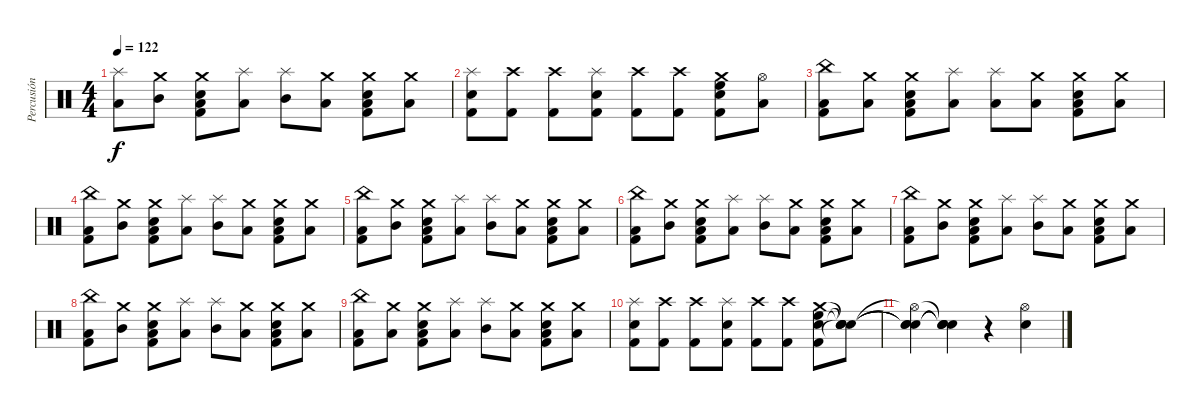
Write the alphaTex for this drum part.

\track ("Percusión" "Percusión") {instrument percussion}
\staff {score}
\articulation defaults
\ts (4 4)
\tempo 122
\clef neutral
\ks c
("Splash (hit)" "Low Floor Tom (hit)").8{dy f} ("Crash medium (hit)" "Mid Tom (hit)").8 ("Crash medium (hit)" "Low Floor Tom (hit)" "Electric Snare (hit)" "Kick (hit) 2").8 ("Splash (hit)" "Low Floor Tom (hit)").8 ("Splash (hit)" "Mid Tom (hit)").8 ("Crash medium (hit)" "Low Floor Tom (hit)").8 ("Crash medium (hit)" "Low Floor Tom (hit)" "Electric Snare (hit)" "Kick (hit) 2").8 ("Crash medium (hit)" "Low Floor Tom (hit)").8 |
("Electric Snare (hit)" "Kick (hit) 2" "Splash (hit)").8 ("Kick (hit) 2" "Crash high (hit)").8 ("Kick (hit) 2" "Crash high (hit)").8 ("Electric Snare (hit)" "Kick (hit) 2" "Splash (hit)").8 ("Kick (hit) 2" "Crash high (hit)").8 ("Kick (hit) 2" "Crash high (hit)").8 ("Electric Snare (hit)" "Kick (hit) 2" "Crash medium (hit)" "High Floor Tom (hit)").8 ("Hi-Hat (open)" "Low Floor Tom (hit)").8 |
("China (hit)" "Low Floor Tom (hit)" "Kick (hit) 2").8 ("Crash medium (hit)" "Low Floor Tom (hit)").8 ("Crash medium (hit)" "Low Floor Tom (hit)" "Electric Snare (hit)" "Kick (hit) 2").8 ("Splash (hit)" "Low Floor Tom (hit)").8 ("Splash (hit)" "Low Floor Tom (hit)").8 ("Crash medium (hit)" "Low Floor Tom (hit)").8 ("Crash medium (hit)" "Low Floor Tom (hit)" "Electric Snare (hit)" "Kick (hit) 2").8 ("Crash medium (hit)" "Low Floor Tom (hit)").8 |
("China (hit)" "Low Floor Tom (hit)" "Kick (hit) 2").8 ("Crash medium (hit)" "Mid Tom (hit)").8 ("Crash medium (hit)" "Low Floor Tom (hit)" "Electric Snare (hit)" "Kick (hit) 2").8 ("Splash (hit)" "Low Floor Tom (hit)").8 ("Splash (hit)" "Mid Tom (hit)").8 ("Crash medium (hit)" "Low Floor Tom (hit)").8 ("Crash medium (hit)" "Low Floor Tom (hit)" "Electric Snare (hit)" "Kick (hit) 2").8 ("Crash medium (hit)" "Low Floor Tom (hit)").8 |
("China (hit)" "Low Floor Tom (hit)" "Kick (hit) 2").8 ("Crash medium (hit)" "Mid Tom (hit)").8 ("Crash medium (hit)" "Low Floor Tom (hit)" "Electric Snare (hit)" "Kick (hit) 2").8 ("Splash (hit)" "Low Floor Tom (hit)").8 ("Splash (hit)" "Mid Tom (hit)").8 ("Crash medium (hit)" "Low Floor Tom (hit)").8 ("Crash medium (hit)" "Low Floor Tom (hit)" "Electric Snare (hit)" "Kick (hit) 2").8 ("Crash medium (hit)" "Low Floor Tom (hit)").8 |
("China (hit)" "Low Floor Tom (hit)" "Kick (hit) 2").8 ("Crash medium (hit)" "Mid Tom (hit)").8 ("Crash medium (hit)" "Low Floor Tom (hit)" "Electric Snare (hit)" "Kick (hit) 2").8 ("Splash (hit)" "Low Floor Tom (hit)").8 ("Splash (hit)" "Mid Tom (hit)").8 ("Crash medium (hit)" "Low Floor Tom (hit)").8 ("Crash medium (hit)" "Low Floor Tom (hit)" "Electric Snare (hit)" "Kick (hit) 2").8 ("Crash medium (hit)" "Low Floor Tom (hit)").8 |
("China (hit)" "Low Floor Tom (hit)" "Kick (hit) 2").8 ("Crash medium (hit)" "Mid Tom (hit)").8 ("Crash medium (hit)" "Low Floor Tom (hit)" "Electric Snare (hit)" "Kick (hit) 2").8 ("Splash (hit)" "Low Floor Tom (hit)").8 ("Splash (hit)" "Mid Tom (hit)").8 ("Crash medium (hit)" "Low Floor Tom (hit)").8 ("Crash medium (hit)" "Low Floor Tom (hit)" "Electric Snare (hit)" "Kick (hit) 2").8 ("Crash medium (hit)" "Low Floor Tom (hit)").8 |
("China (hit)" "Low Floor Tom (hit)" "Kick (hit) 2").8 ("Crash medium (hit)" "Mid Tom (hit)").8 ("Crash medium (hit)" "Low Floor Tom (hit)" "Electric Snare (hit)" "Kick (hit) 2").8 ("Splash (hit)" "Low Floor Tom (hit)").8 ("Splash (hit)" "Mid Tom (hit)").8 ("Crash medium (hit)" "Low Floor Tom (hit)").8 ("Crash medium (hit)" "Low Floor Tom (hit)" "Electric Snare (hit)" "Kick (hit) 2").8 ("Crash medium (hit)" "Low Floor Tom (hit)").8 |
("China (hit)" "Low Floor Tom (hit)" "Kick (hit) 2").8 ("Crash medium (hit)" "Low Floor Tom (hit)").8 ("Crash medium (hit)" "Low Floor Tom (hit)" "Electric Snare (hit)" "Kick (hit) 2").8 ("Splash (hit)" "Low Floor Tom (hit)").8 ("Splash (hit)" "Mid Tom (hit)").8 ("Crash medium (hit)" "Low Floor Tom (hit)").8 ("Crash medium (hit)" "Low Floor Tom (hit)" "Electric Snare (hit)" "Kick (hit) 2").8 ("Crash medium (hit)" "Low Floor Tom (hit)").8 |
("Electric Snare (hit)" "Kick (hit) 2" "Splash (hit)").8 ("Kick (hit) 2" "Crash high (hit)").8 ("Kick (hit) 2" "Crash high (hit)").8 ("Electric Snare (hit)" "Kick (hit) 2" "Splash (hit)").8 ("Kick (hit) 2" "Crash high (hit)").8 ("Kick (hit) 2" "Crash high (hit)").8 ("Electric Snare (hit)" "Kick (hit) 2" "Crash medium (hit)" "High Floor Tom (hit)").8 ("Electric Snare (hit)"{t} "Snare (hit)"{t} "Snare (hit)"{t} "Snare (hit)"{t}).8 |
("Snare (hit) 2"{t} "Hi-Hat (open)"{t} "Snare (hit)"{t} "Snare (hit)"{t}).4 ("Snare (hit)"{t} "Snare (hit)"{t} "Snare (hit)"{t} "Snare (hit)"{t}).4 r.4 ("Snare (hit) 2" "Hi-Hat (open)").4
